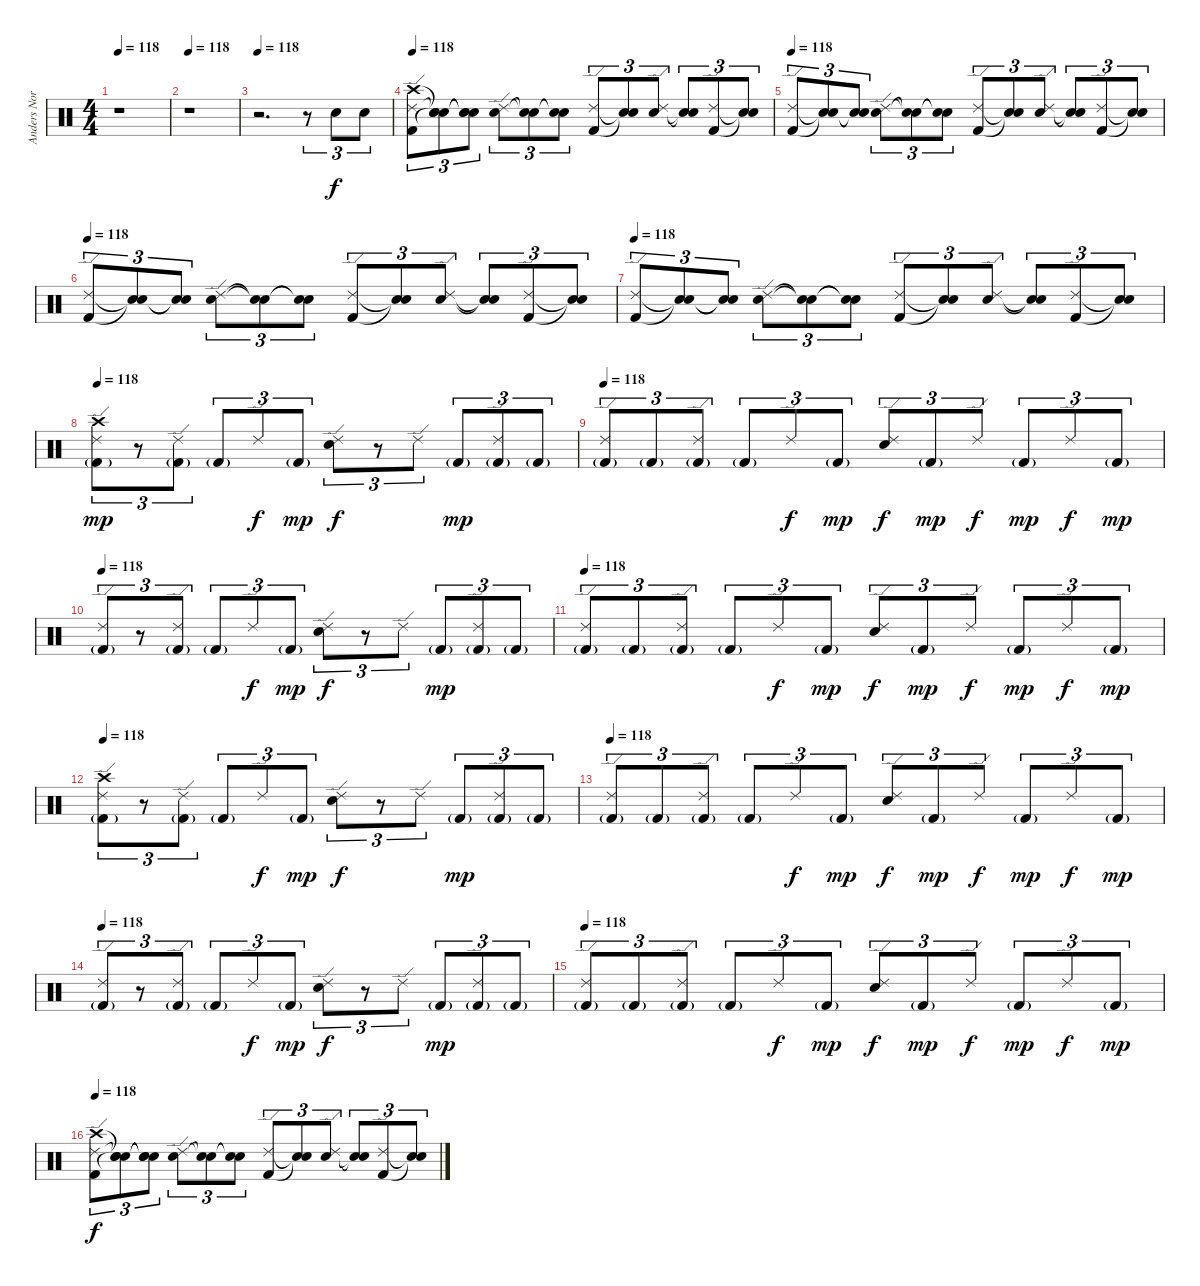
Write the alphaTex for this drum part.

\track ("Anders Nordin" "Anders Nor") {instrument percussion}
\staff {score}
\articulation defaults
\ts (4 4)
\tempo 118
\clef neutral
\ks c
r.1{dy mp} |
\tempo 118
r.1 |
\tempo 118
r.2{d volume 10} r.8{tu (3 2)} "Electric Snare (hit)".8{tu (3 2) dy f} "Electric Snare (hit)".8{tu (3 2)} |
\tempo 118
("Kick (hit) 2" "Ride (edge) 2" "Crash high (hit)").8{tu (3 2) volume 10} ("Snare (hit)"{t} "Snare (hit)"{t} "Snare (hit)"{t}).8{tu (3 2)} ("Snare (hit)"{t} "Snare (hit)"{t} "Snare (hit)"{t}).8{tu (3 2)} ("Electric Snare (hit)" "Ride (edge) 2").8{tu (3 2)} ("Snare (hit)"{t} "Snare (hit)"{t}).8{tu (3 2)} ("Snare (hit)"{t} "Snare (hit)"{t}).8{tu (3 2)} ("Kick (hit) 2" "Ride (edge) 2").8{tu (3 2)} ("Snare (hit)"{t} "Snare (hit)"{t}).8{tu (3 2)} ("Electric Snare (hit)" "Ride (edge) 2").8{tu (3 2)} ("Snare (hit)"{t} "Snare (hit)"{t}).8{tu (3 2)} ("Kick (hit) 2" "Ride (edge) 2").8{tu (3 2)} ("Snare (hit)"{t} "Snare (hit)"{t}).8{tu (3 2)} |
\tempo 118
("Kick (hit) 2" "Ride (edge) 2").8{tu (3 2)} ("Snare (hit)"{t} "Snare (hit)"{t}).8{tu (3 2)} ("Snare (hit)"{t} "Snare (hit)"{t}).8{tu (3 2)} ("Electric Snare (hit)" "Ride (edge) 2").8{tu (3 2)} ("Snare (hit)"{t} "Snare (hit)"{t}).8{tu (3 2)} ("Snare (hit)"{t} "Snare (hit)"{t}).8{tu (3 2)} ("Kick (hit) 2" "Ride (edge) 2").8{tu (3 2)} ("Snare (hit)"{t} "Snare (hit)"{t}).8{tu (3 2)} ("Electric Snare (hit)" "Ride (edge) 2").8{tu (3 2)} ("Snare (hit)"{t} "Snare (hit)"{t}).8{tu (3 2)} ("Kick (hit) 2" "Ride (edge) 2").8{tu (3 2)} ("Snare (hit)"{t} "Snare (hit)"{t}).8{tu (3 2)} |
\tempo 118
("Kick (hit) 2" "Ride (edge) 2").8{tu (3 2) volume 10} ("Snare (hit)"{t} "Snare (hit)"{t}).8{tu (3 2)} ("Snare (hit)"{t} "Snare (hit)"{t}).8{tu (3 2)} ("Electric Snare (hit)" "Ride (edge) 2").8{tu (3 2)} ("Snare (hit)"{t} "Snare (hit)"{t}).8{tu (3 2)} ("Snare (hit)"{t} "Snare (hit)"{t}).8{tu (3 2)} ("Kick (hit) 2" "Ride (edge) 2").8{tu (3 2)} ("Snare (hit)"{t} "Snare (hit)"{t}).8{tu (3 2)} ("Electric Snare (hit)" "Ride (edge) 2").8{tu (3 2)} ("Snare (hit)"{t} "Snare (hit)"{t}).8{tu (3 2)} ("Kick (hit) 2" "Ride (edge) 2").8{tu (3 2)} ("Snare (hit)"{t} "Snare (hit)"{t}).8{tu (3 2)} |
\tempo 118
("Kick (hit) 2" "Ride (edge) 2").8{tu (3 2)} ("Snare (hit)"{t} "Snare (hit)"{t}).8{tu (3 2)} ("Snare (hit)"{t} "Snare (hit)"{t}).8{tu (3 2)} ("Electric Snare (hit)" "Ride (edge) 2").8{tu (3 2)} ("Snare (hit)"{t} "Snare (hit)"{t}).8{tu (3 2)} ("Snare (hit)"{t} "Snare (hit)"{t}).8{tu (3 2)} ("Kick (hit) 2" "Ride (edge) 2").8{tu (3 2)} ("Snare (hit)"{t} "Snare (hit)"{t}).8{tu (3 2)} ("Electric Snare (hit)" "Ride (edge) 2").8{tu (3 2)} ("Snare (hit)"{t} "Snare (hit)"{t}).8{tu (3 2)} ("Kick (hit) 2" "Ride (edge) 2").8{tu (3 2)} ("Snare (hit)"{t} "Snare (hit)"{t}).8{tu (3 2)} |
\tempo 118
("Kick (hit) 2"{g} "Ride (edge) 2" "Crash high (hit)").8{tu (3 2) dy mp volume 8} r.8{tu (3 2)} ("Kick (hit) 2"{g} "Ride (edge) 2").8{tu (3 2)} "Kick (hit) 2"{g}.8{tu (3 2)} "Ride (edge) 2".8{tu (3 2) dy f} "Kick (hit) 2"{g}.8{tu (3 2) dy mp} ("Electric Snare (hit)" "Ride (edge) 2").8{tu (3 2) dy f} r.8{tu (3 2)} "Ride (edge) 2".8{tu (3 2)} "Kick (hit) 2"{g}.8{tu (3 2) dy mp} ("Kick (hit) 2"{g} "Ride (edge) 2").8{tu (3 2)} "Kick (hit) 2"{g}.8{tu (3 2)} |
\tempo 118
("Kick (hit) 2"{g} "Ride (edge) 2").8{tu (3 2)} "Kick (hit) 2"{g}.8{tu (3 2)} ("Kick (hit) 2"{g} "Ride (edge) 2").8{tu (3 2)} "Kick (hit) 2"{g}.8{tu (3 2)} "Ride (edge) 2".8{tu (3 2) dy f} "Kick (hit) 2"{g}.8{tu (3 2) dy mp} ("Electric Snare (hit)" "Ride (edge) 2").8{tu (3 2) dy f} "Kick (hit) 2"{g}.8{tu (3 2) dy mp} "Ride (edge) 2".8{tu (3 2) dy f} "Kick (hit) 2"{g}.8{tu (3 2) dy mp} "Ride (edge) 2".8{tu (3 2) dy f} "Kick (hit) 2"{g}.8{tu (3 2) dy mp} |
\tempo 118
("Kick (hit) 2"{g} "Ride (edge) 2").8{tu (3 2) volume 8} r.8{tu (3 2)} ("Kick (hit) 2"{g} "Ride (edge) 2").8{tu (3 2)} "Kick (hit) 2"{g}.8{tu (3 2)} "Ride (edge) 2".8{tu (3 2) dy f} "Kick (hit) 2"{g}.8{tu (3 2) dy mp} ("Electric Snare (hit)" "Ride (edge) 2").8{tu (3 2) dy f} r.8{tu (3 2)} "Ride (edge) 2".8{tu (3 2)} "Kick (hit) 2"{g}.8{tu (3 2) dy mp} ("Kick (hit) 2"{g} "Ride (edge) 2").8{tu (3 2)} "Kick (hit) 2"{g}.8{tu (3 2)} |
\tempo 118
("Kick (hit) 2"{g} "Ride (edge) 2").8{tu (3 2)} "Kick (hit) 2"{g}.8{tu (3 2)} ("Kick (hit) 2"{g} "Ride (edge) 2").8{tu (3 2)} "Kick (hit) 2"{g}.8{tu (3 2)} "Ride (edge) 2".8{tu (3 2) dy f} "Kick (hit) 2"{g}.8{tu (3 2) dy mp} ("Electric Snare (hit)" "Ride (edge) 2").8{tu (3 2) dy f} "Kick (hit) 2"{g}.8{tu (3 2) dy mp} "Ride (edge) 2".8{tu (3 2) dy f} "Kick (hit) 2"{g}.8{tu (3 2) dy mp} "Ride (edge) 2".8{tu (3 2) dy f} "Kick (hit) 2"{g}.8{tu (3 2) dy mp} |
\tempo 118
("Kick (hit) 2"{g} "Ride (edge) 2" "Crash high (hit)").8{tu (3 2) volume 8} r.8{tu (3 2)} ("Kick (hit) 2"{g} "Ride (edge) 2").8{tu (3 2)} "Kick (hit) 2"{g}.8{tu (3 2)} "Ride (edge) 2".8{tu (3 2) dy f} "Kick (hit) 2"{g}.8{tu (3 2) dy mp} ("Electric Snare (hit)" "Ride (edge) 2").8{tu (3 2) dy f} r.8{tu (3 2)} "Ride (edge) 2".8{tu (3 2)} "Kick (hit) 2"{g}.8{tu (3 2) dy mp} ("Kick (hit) 2"{g} "Ride (edge) 2").8{tu (3 2)} "Kick (hit) 2"{g}.8{tu (3 2)} |
\tempo 118
("Kick (hit) 2"{g} "Ride (edge) 2").8{tu (3 2)} "Kick (hit) 2"{g}.8{tu (3 2)} ("Kick (hit) 2"{g} "Ride (edge) 2").8{tu (3 2)} "Kick (hit) 2"{g}.8{tu (3 2)} "Ride (edge) 2".8{tu (3 2) dy f} "Kick (hit) 2"{g}.8{tu (3 2) dy mp} ("Electric Snare (hit)" "Ride (edge) 2").8{tu (3 2) dy f} "Kick (hit) 2"{g}.8{tu (3 2) dy mp} "Ride (edge) 2".8{tu (3 2) dy f} "Kick (hit) 2"{g}.8{tu (3 2) dy mp} "Ride (edge) 2".8{tu (3 2) dy f} "Kick (hit) 2"{g}.8{tu (3 2) dy mp} |
\tempo 118
("Kick (hit) 2"{g} "Ride (edge) 2").8{tu (3 2) volume 8} r.8{tu (3 2)} ("Kick (hit) 2"{g} "Ride (edge) 2").8{tu (3 2)} "Kick (hit) 2"{g}.8{tu (3 2)} "Ride (edge) 2".8{tu (3 2) dy f} "Kick (hit) 2"{g}.8{tu (3 2) dy mp} ("Electric Snare (hit)" "Ride (edge) 2").8{tu (3 2) dy f} r.8{tu (3 2)} "Ride (edge) 2".8{tu (3 2)} "Kick (hit) 2"{g}.8{tu (3 2) dy mp} ("Kick (hit) 2"{g} "Ride (edge) 2").8{tu (3 2)} "Kick (hit) 2"{g}.8{tu (3 2)} |
\tempo 118
("Kick (hit) 2"{g} "Ride (edge) 2").8{tu (3 2)} "Kick (hit) 2"{g}.8{tu (3 2)} ("Kick (hit) 2"{g} "Ride (edge) 2").8{tu (3 2)} "Kick (hit) 2"{g}.8{tu (3 2)} "Ride (edge) 2".8{tu (3 2) dy f} "Kick (hit) 2"{g}.8{tu (3 2) dy mp} ("Electric Snare (hit)" "Ride (edge) 2").8{tu (3 2) dy f} "Kick (hit) 2"{g}.8{tu (3 2) dy mp} "Ride (edge) 2".8{tu (3 2) dy f} "Kick (hit) 2"{g}.8{tu (3 2) dy mp} "Ride (edge) 2".8{tu (3 2) dy f} "Kick (hit) 2"{g}.8{tu (3 2) dy mp} |
\tempo 118
("Kick (hit) 2" "Ride (edge) 2" "Crash high (hit)").8{tu (3 2) dy f volume 10} ("Snare (hit)"{t} "Snare (hit)"{t} "Snare (hit)"{t}).8{tu (3 2)} ("Snare (hit)"{t} "Snare (hit)"{t} "Snare (hit)"{t}).8{tu (3 2)} ("Electric Snare (hit)" "Ride (edge) 2").8{tu (3 2)} ("Snare (hit)"{t} "Snare (hit)"{t}).8{tu (3 2)} ("Snare (hit)"{t} "Snare (hit)"{t}).8{tu (3 2)} ("Kick (hit) 2" "Ride (edge) 2").8{tu (3 2)} ("Snare (hit)"{t} "Snare (hit)"{t}).8{tu (3 2)} ("Electric Snare (hit)" "Ride (edge) 2").8{tu (3 2)} ("Snare (hit)"{t} "Snare (hit)"{t}).8{tu (3 2)} ("Kick (hit) 2" "Ride (edge) 2").8{tu (3 2)} ("Snare (hit)"{t} "Snare (hit)"{t}).8{tu (3 2)}
